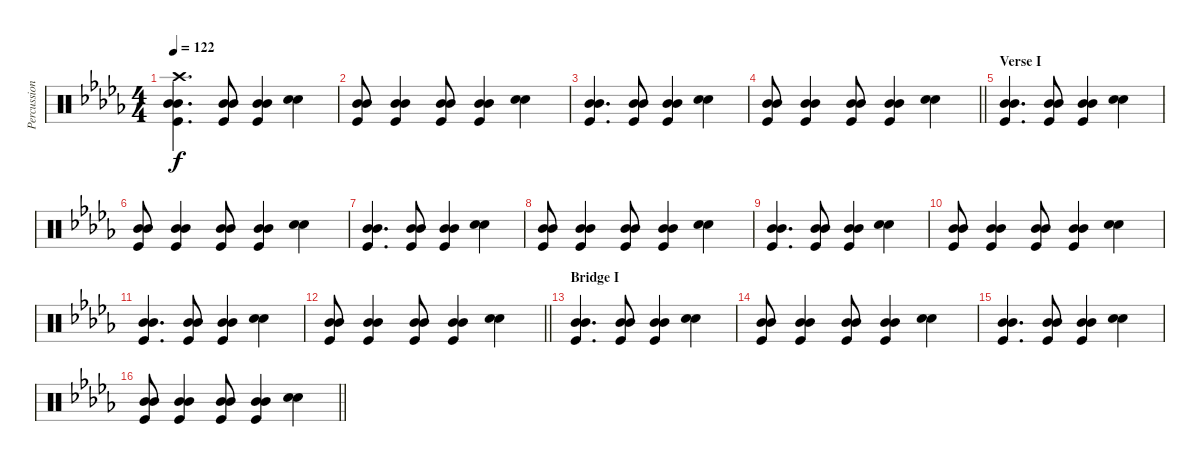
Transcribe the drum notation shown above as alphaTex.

\track ("Percussion" "Percussion") {instrument percussion}
\staff {score}
\articulation defaults
\ts (4 4)
\section ("" "")
\tempo 122
\clef neutral
\ks bbminor
("Crash high (hit)" "Mid Tom (hit)" "Mid Tom (hit)" "Kick (hit)").4{d dy f} ("Mid Tom (hit)" "Mid Tom (hit)" "Kick (hit)").8 ("Mid Tom (hit)" "Mid Tom (hit)" "Kick (hit)").4 ("Snare (hit) 2" "Snare (hit) 2").4 |
("Mid Tom (hit)" "Mid Tom (hit)" "Kick (hit)").8 ("Mid Tom (hit)" "Mid Tom (hit)" "Kick (hit)").4 ("Mid Tom (hit)" "Mid Tom (hit)" "Kick (hit)").8 ("Mid Tom (hit)" "Mid Tom (hit)" "Kick (hit)").4 ("Snare (hit) 2" "Snare (hit) 2").4 |
("Mid Tom (hit)" "Mid Tom (hit)" "Kick (hit)").4{d} ("Mid Tom (hit)" "Mid Tom (hit)" "Kick (hit)").8 ("Mid Tom (hit)" "Mid Tom (hit)" "Kick (hit)").4 ("Snare (hit) 2" "Snare (hit) 2").4 |
\barLineRight lightlight
("Mid Tom (hit)" "Mid Tom (hit)" "Kick (hit)").8 ("Mid Tom (hit)" "Mid Tom (hit)" "Kick (hit)").4 ("Mid Tom (hit)" "Mid Tom (hit)" "Kick (hit)").8 ("Mid Tom (hit)" "Mid Tom (hit)" "Kick (hit)").4 ("Snare (hit) 2" "Snare (hit) 2").4 |
\section ("" "Verse I")
("Mid Tom (hit)" "Mid Tom (hit)" "Kick (hit)").4{d} ("Mid Tom (hit)" "Mid Tom (hit)" "Kick (hit)").8 ("Mid Tom (hit)" "Mid Tom (hit)" "Kick (hit)").4 ("Snare (hit) 2" "Snare (hit) 2").4 |
("Mid Tom (hit)" "Mid Tom (hit)" "Kick (hit)").8 ("Mid Tom (hit)" "Mid Tom (hit)" "Kick (hit)").4 ("Mid Tom (hit)" "Mid Tom (hit)" "Kick (hit)").8 ("Mid Tom (hit)" "Mid Tom (hit)" "Kick (hit)").4 ("Snare (hit) 2" "Snare (hit) 2").4 |
("Mid Tom (hit)" "Mid Tom (hit)" "Kick (hit)").4{d} ("Mid Tom (hit)" "Mid Tom (hit)" "Kick (hit)").8 ("Mid Tom (hit)" "Mid Tom (hit)" "Kick (hit)").4 ("Snare (hit) 2" "Snare (hit) 2").4 |
("Mid Tom (hit)" "Mid Tom (hit)" "Kick (hit)").8 ("Mid Tom (hit)" "Mid Tom (hit)" "Kick (hit)").4 ("Mid Tom (hit)" "Mid Tom (hit)" "Kick (hit)").8 ("Mid Tom (hit)" "Mid Tom (hit)" "Kick (hit)").4 ("Snare (hit) 2" "Snare (hit) 2").4 |
("Mid Tom (hit)" "Mid Tom (hit)" "Kick (hit)").4{d} ("Mid Tom (hit)" "Mid Tom (hit)" "Kick (hit)").8 ("Mid Tom (hit)" "Mid Tom (hit)" "Kick (hit)").4 ("Snare (hit) 2" "Snare (hit) 2").4 |
("Mid Tom (hit)" "Mid Tom (hit)" "Kick (hit)").8 ("Mid Tom (hit)" "Mid Tom (hit)" "Kick (hit)").4 ("Mid Tom (hit)" "Mid Tom (hit)" "Kick (hit)").8 ("Mid Tom (hit)" "Mid Tom (hit)" "Kick (hit)").4 ("Snare (hit) 2" "Snare (hit) 2").4 |
("Mid Tom (hit)" "Mid Tom (hit)" "Kick (hit)").4{d} ("Mid Tom (hit)" "Mid Tom (hit)" "Kick (hit)").8 ("Mid Tom (hit)" "Mid Tom (hit)" "Kick (hit)").4 ("Snare (hit) 2" "Snare (hit) 2").4 |
\barLineRight lightlight
("Mid Tom (hit)" "Mid Tom (hit)" "Kick (hit)").8 ("Mid Tom (hit)" "Mid Tom (hit)" "Kick (hit)").4 ("Mid Tom (hit)" "Mid Tom (hit)" "Kick (hit)").8 ("Mid Tom (hit)" "Mid Tom (hit)" "Kick (hit)").4 ("Snare (hit) 2" "Snare (hit) 2").4 |
\section ("" "Bridge I")
("Mid Tom (hit)" "Mid Tom (hit)" "Kick (hit)").4{d} ("Mid Tom (hit)" "Mid Tom (hit)" "Kick (hit)").8 ("Mid Tom (hit)" "Mid Tom (hit)" "Kick (hit)").4 ("Snare (hit) 2" "Snare (hit) 2").4 |
("Mid Tom (hit)" "Mid Tom (hit)" "Kick (hit)").8 ("Mid Tom (hit)" "Mid Tom (hit)" "Kick (hit)").4 ("Mid Tom (hit)" "Mid Tom (hit)" "Kick (hit)").8 ("Mid Tom (hit)" "Mid Tom (hit)" "Kick (hit)").4 ("Snare (hit) 2" "Snare (hit) 2").4 |
("Mid Tom (hit)" "Mid Tom (hit)" "Kick (hit)").4{d} ("Mid Tom (hit)" "Mid Tom (hit)" "Kick (hit)").8 ("Mid Tom (hit)" "Mid Tom (hit)" "Kick (hit)").4 ("Snare (hit) 2" "Snare (hit) 2").4 |
\barLineRight lightlight
("Mid Tom (hit)" "Mid Tom (hit)" "Kick (hit)").8 ("Mid Tom (hit)" "Mid Tom (hit)" "Kick (hit)").4 ("Mid Tom (hit)" "Mid Tom (hit)" "Kick (hit)").8 ("Mid Tom (hit)" "Mid Tom (hit)" "Kick (hit)").4 ("Snare (hit) 2" "Snare (hit) 2").4
